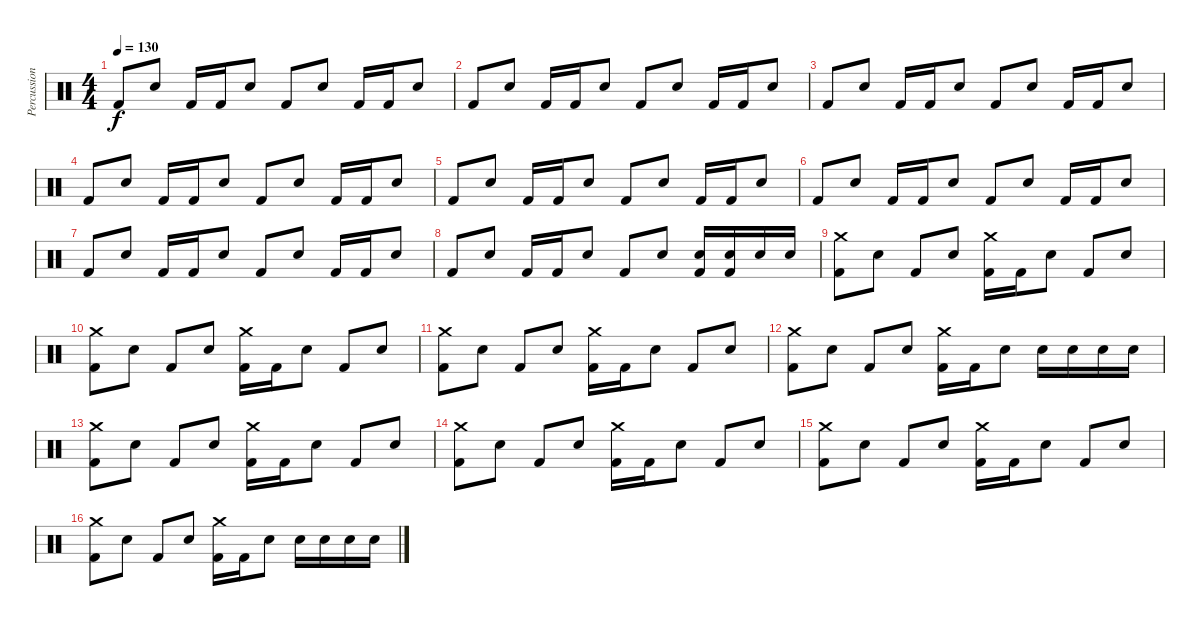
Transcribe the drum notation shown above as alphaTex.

\track ("Percussion" "Percussion") {instrument percussion}
\staff {score}
\articulation defaults
\ts (4 4)
\tempo 130
\clef neutral
\ks c "Kick (hit) 2".8{dy f} "Snare (hit) 2".8 "Kick (hit) 2".16 "Kick (hit) 2".16 "Snare (hit) 2".8 "Kick (hit) 2".8 "Snare (hit) 2".8 "Kick (hit) 2".16 "Kick (hit) 2".16 "Snare (hit) 2".8
|
"Kick (hit) 2".8 "Snare (hit) 2".8 "Kick (hit) 2".16 "Kick (hit) 2".16 "Snare (hit) 2".8 "Kick (hit) 2".8 "Snare (hit) 2".8 "Kick (hit) 2".16 "Kick (hit) 2".16 "Snare (hit) 2".8 |
"Kick (hit) 2".8 "Snare (hit) 2".8 "Kick (hit) 2".16 "Kick (hit) 2".16 "Snare (hit) 2".8 "Kick (hit) 2".8 "Snare (hit) 2".8 "Kick (hit) 2".16 "Kick (hit) 2".16 "Snare (hit) 2".8 |
"Kick (hit) 2".8 "Snare (hit) 2".8 "Kick (hit) 2".16 "Kick (hit) 2".16 "Snare (hit) 2".8 "Kick (hit) 2".8 "Snare (hit) 2".8 "Kick (hit) 2".16 "Kick (hit) 2".16 "Snare (hit) 2".8 |
"Kick (hit) 2".8 "Snare (hit) 2".8 "Kick (hit) 2".16 "Kick (hit) 2".16 "Snare (hit) 2".8 "Kick (hit) 2".8 "Snare (hit) 2".8 "Kick (hit) 2".16 "Kick (hit) 2".16 "Snare (hit) 2".8 |
"Kick (hit) 2".8 "Snare (hit) 2".8 "Kick (hit) 2".16 "Kick (hit) 2".16 "Snare (hit) 2".8 "Kick (hit) 2".8 "Snare (hit) 2".8 "Kick (hit) 2".16 "Kick (hit) 2".16 "Snare (hit) 2".8 |
"Kick (hit) 2".8 "Snare (hit) 2".8 "Kick (hit) 2".16 "Kick (hit) 2".16 "Snare (hit) 2".8 "Kick (hit) 2".8 "Snare (hit) 2".8 "Kick (hit) 2".16 "Kick (hit) 2".16 "Snare (hit) 2".8 |
"Kick (hit) 2".8 "Snare (hit) 2".8 "Kick (hit) 2".16 "Kick (hit) 2".16 "Snare (hit) 2".8 "Kick (hit) 2".8 "Snare (hit) 2".8 ("Kick (hit) 2" "Snare (hit) 2").16 ("Kick (hit) 2" "Snare (hit) 2").16 "Snare (hit) 2".16 "Snare (hit) 2".16 |
("Kick (hit) 2" "Crash medium (hit)").8 "Snare (hit) 2".8 "Kick (hit) 2".8 "Snare (hit) 2".8 ("Kick (hit) 2" "Crash medium (hit)").16 "Kick (hit) 2".16 "Snare (hit) 2".8 "Kick (hit) 2".8 "Snare (hit) 2".8 |
("Kick (hit) 2" "Crash medium (hit)").8 "Snare (hit) 2".8 "Kick (hit) 2".8 "Snare (hit) 2".8 ("Kick (hit) 2" "Crash medium (hit)").16 "Kick (hit) 2".16 "Snare (hit) 2".8 "Kick (hit) 2".8 "Snare (hit) 2".8 |
("Kick (hit) 2" "Crash medium (hit)").8 "Snare (hit) 2".8 "Kick (hit) 2".8 "Snare (hit) 2".8 ("Kick (hit) 2" "Crash medium (hit)").16 "Kick (hit) 2".16 "Snare (hit) 2".8 "Kick (hit) 2".8 "Snare (hit) 2".8 |
("Kick (hit) 2" "Crash medium (hit)").8 "Snare (hit) 2".8 "Kick (hit) 2".8 "Snare (hit) 2".8 ("Kick (hit) 2" "Crash medium (hit)").16 "Kick (hit) 2".16 "Snare (hit) 2".8 "Snare (hit) 2".16 "Snare (hit) 2".16 "Snare (hit) 2".16 "Snare (hit) 2".16 |
("Kick (hit) 2" "Crash medium (hit)").8 "Snare (hit) 2".8 "Kick (hit) 2".8 "Snare (hit) 2".8 ("Kick (hit) 2" "Crash medium (hit)").16 "Kick (hit) 2".16 "Snare (hit) 2".8 "Kick (hit) 2".8 "Snare (hit) 2".8 |
("Kick (hit) 2" "Crash medium (hit)").8 "Snare (hit) 2".8 "Kick (hit) 2".8 "Snare (hit) 2".8 ("Kick (hit) 2" "Crash medium (hit)").16 "Kick (hit) 2".16 "Snare (hit) 2".8 "Kick (hit) 2".8 "Snare (hit) 2".8 |
("Kick (hit) 2" "Crash medium (hit)").8 "Snare (hit) 2".8 "Kick (hit) 2".8 "Snare (hit) 2".8 ("Kick (hit) 2" "Crash medium (hit)").16 "Kick (hit) 2".16 "Snare (hit) 2".8 "Kick (hit) 2".8 "Snare (hit) 2".8 |
("Kick (hit) 2" "Crash medium (hit)").8 "Snare (hit) 2".8 "Kick (hit) 2".8 "Snare (hit) 2".8 ("Kick (hit) 2" "Crash medium (hit)").16 "Kick (hit) 2".16 "Snare (hit) 2".8 "Snare (hit) 2".16 "Snare (hit) 2".16 "Snare (hit) 2".16 "Snare (hit) 2".16
